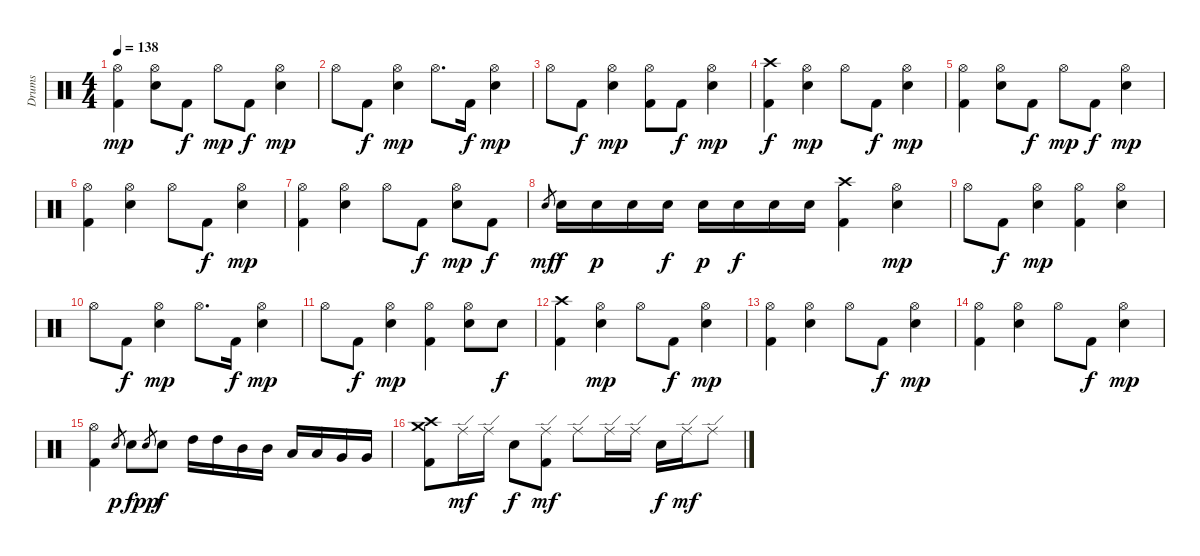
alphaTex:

\bracketExtendMode groupsimilarinstruments
\otherSystemsTrackNameOrientation horizontal
\track ("Drumkit" "Drums") {instrument percussion}
\staff {score}
\articulation defaults
\ts (4 4)
\tempo 138
\clef neutral
\ks c
("Hi-Hat (open)" "Kick (hit) 2").4{dy mp beam Down} ("Hi-Hat (open)" "Snare (hit) 2").8{beam Down} "Kick (hit) 2".8{dy f beam Down} "Hi-Hat (open)".8{dy mp beam Down} "Kick (hit) 2".8{dy f beam Down} ("Hi-Hat (open)" "Snare (hit) 2").4{dy mp beam Down} |
"Hi-Hat (open)".8{beam Down} "Kick (hit) 2".8{dy f beam Down} ("Hi-Hat (open)" "Snare (hit) 2").4{dy mp beam Down} "Hi-Hat (open)".8{d beam Down} "Kick (hit) 2".16{dy f beam Down} ("Hi-Hat (open)" "Snare (hit) 2").4{dy mp beam Down} |
"Hi-Hat (open)".8{beam Down} "Kick (hit) 2".8{dy f beam Down} ("Hi-Hat (open)" "Snare (hit) 2").4{dy mp beam Down} ("Hi-Hat (open)" "Kick (hit) 2").8{beam Down} "Kick (hit) 2".8{dy f beam Down} ("Hi-Hat (open)" "Snare (hit) 2").4{dy mp beam Down} |
("Crash high (hit)" "Kick (hit) 2").4{dy f beam Down} ("Hi-Hat (open)" "Snare (hit) 2").4{dy mp beam Down} "Hi-Hat (open)".8{beam Down} "Kick (hit) 2".8{dy f beam Down} ("Hi-Hat (open)" "Snare (hit) 2").4{dy mp beam Down} |
("Hi-Hat (open)" "Kick (hit) 2").4{beam Down} ("Hi-Hat (open)" "Snare (hit) 2").8{beam Down} "Kick (hit) 2".8{dy f beam Down} "Hi-Hat (open)".8{dy mp beam Down} "Kick (hit) 2".8{dy f beam Down} ("Hi-Hat (open)" "Snare (hit) 2").4{dy mp beam Down} |
("Hi-Hat (open)" "Kick (hit) 2").4{beam Down} ("Hi-Hat (open)" "Snare (hit) 2").4{beam Down} "Hi-Hat (open)".8{beam Down} "Kick (hit) 2".8{dy f beam Down} ("Hi-Hat (open)" "Snare (hit) 2").4{dy mp beam Down} |
("Hi-Hat (open)" "Kick (hit) 2").4{beam Down} ("Hi-Hat (open)" "Snare (hit) 2").4{beam Down} "Hi-Hat (open)".8{beam Down} "Kick (hit) 2".8{dy f beam Down} ("Hi-Hat (open)" "Snare (hit) 2").8{dy mp beam Down} "Kick (hit) 2".8{dy f beam Down} |
"Snare (hit) 2".8{gr dy mf beam Up} "Snare (hit) 2".16{dy f beam Down} "Snare (hit) 2".16{dy p beam Down} "Snare (hit) 2".16{beam Down} "Snare (hit) 2".16{dy f beam Down} "Snare (hit) 2".16{dy p beam Down} "Snare (hit) 2".16{dy f beam Down} "Snare (hit) 2".16{beam Down} "Snare (hit) 2".16{beam Down} ("Crash high (hit)" "Kick (hit) 2").4{beam Down} ("Hi-Hat (open)" "Snare (hit) 2").4{dy mp beam Down} |
"Hi-Hat (open)".8{beam Down} "Kick (hit) 2".8{dy f beam Down} ("Hi-Hat (open)" "Snare (hit) 2").4{dy mp beam Down} ("Hi-Hat (open)" "Kick (hit) 2").4{beam Down} ("Hi-Hat (open)" "Snare (hit) 2").4{beam Down} |
"Hi-Hat (open)".8{beam Down} "Kick (hit) 2".8{dy f beam Down} ("Hi-Hat (open)" "Snare (hit) 2").4{dy mp beam Down} "Hi-Hat (open)".8{d beam Down} "Kick (hit) 2".16{dy f beam Down} ("Hi-Hat (open)" "Snare (hit) 2").4{dy mp beam Down} |
"Hi-Hat (open)".8{beam Down} "Kick (hit) 2".8{dy f beam Down} ("Hi-Hat (open)" "Snare (hit) 2").4{dy mp beam Down} ("Hi-Hat (open)" "Kick (hit) 2").4{beam Down} ("Hi-Hat (open)" "Snare (hit) 2").8{beam Down} "Snare (hit) 2".8{dy f beam Down} |
("Crash high (hit)" "Kick (hit) 2").4{beam Down} ("Hi-Hat (open)" "Snare (hit) 2").4{dy mp beam Down} "Hi-Hat (open)".8{beam Down} "Kick (hit) 2".8{dy f beam Down} ("Hi-Hat (open)" "Snare (hit) 2").4{dy mp beam Down} |
("Hi-Hat (open)" "Kick (hit) 2").4{beam Down} ("Hi-Hat (open)" "Snare (hit) 2").4{beam Down} "Hi-Hat (open)".8{beam Down} "Kick (hit) 2".8{dy f beam Down} ("Hi-Hat (open)" "Snare (hit) 2").4{dy mp beam Down} |
("Hi-Hat (open)" "Kick (hit) 2").4{beam Down} ("Hi-Hat (open)" "Snare (hit) 2").4{beam Down} "Hi-Hat (open)".8{beam Down} "Kick (hit) 2".8{dy f beam Down} ("Hi-Hat (open)" "Snare (hit) 2").4{dy mp beam Down} |
("Hi-Hat (open)" "Kick (hit) 2").4{beam Down} "Snare (hit) 2".8{gr dy p beam Up} "Snare (hit) 2".8{dy f beam Down} "Snare (hit) 2".8{gr dy pp beam Up} "Snare (hit) 2".8{dy f beam Down} "High Tom (hit)".16{beam Down} "High Tom (hit)".16{beam Down} "Mid Tom (hit)".16{beam Down} "Mid Tom (hit)".16{beam Down} "Low Tom (hit)".16{beam Up} "Low Tom (hit)".16{beam Up} "Very Low Tom (hit)".16{beam Up} "Very Low Tom (hit)".16{beam Up} |
("Crash high (hit)" "Crash medium (hit)" "Kick (hit) 2").8{beam Down} "Ride (edge)".16{dy mf beam Down} "Ride (edge)".16{beam Down} "Snare (hit) 2".8{dy f beam Down} ("Ride (edge)" "Kick (hit) 2").8{dy mf beam Down} "Ride (edge)".8{beam Down} "Ride (edge)".16{beam Down} "Ride (edge)".16{beam Down} "Snare (hit) 2".16{dy f beam Down} "Ride (edge)".16{dy mf beam Down} "Ride (edge)".8{beam Down}
